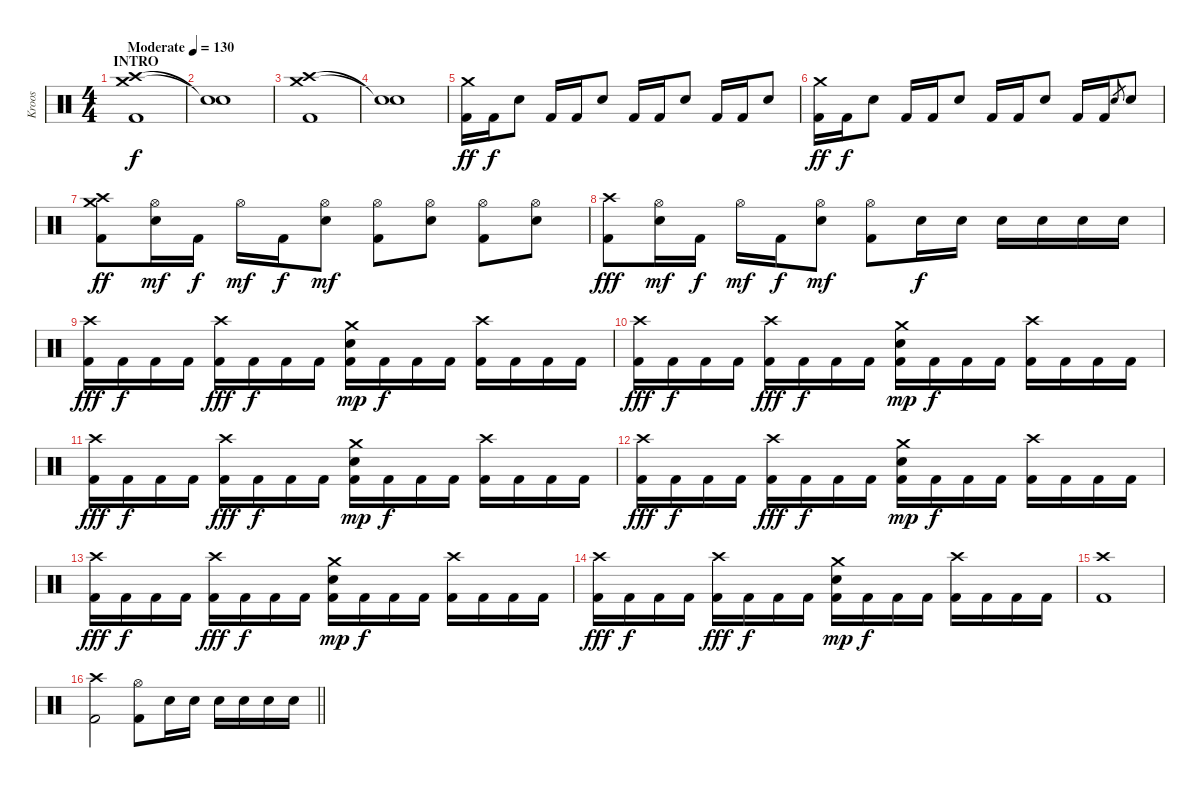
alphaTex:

\track ("Kroos" "Kroos") {instrument percussion}
\staff {score}
\articulation defaults
\ts (4 4)
\section ("" "INTRO")
\tempo (130 "Moderate")
\clef neutral
\ks c
("Crash medium (hit)" "Crash high (hit)" "Kick (hit) 2").1{dy f} |
("Snare (hit)"{t} "Snare (hit)"{t}).1 |
("Crash medium (hit)" "Crash high (hit)" "Kick (hit) 2").1 |
("Snare (hit)"{t} "Snare (hit)"{t}).1 |
("Crash medium (hit)" "Kick (hit) 2").16{dy ff} "Kick (hit) 2".16{dy f} "Electric Snare (hit)".8 "Kick (hit) 2".16 "Kick (hit) 2".16 "Electric Snare (hit)".8 "Kick (hit) 2".16 "Kick (hit) 2".16 "Electric Snare (hit)".8 "Kick (hit) 2".16 "Kick (hit) 2".16 "Electric Snare (hit)".8 |
("Crash medium (hit)" "Kick (hit) 2").16{dy ff} "Kick (hit) 2".16{dy f} "Electric Snare (hit)".8 "Kick (hit) 2".16 "Kick (hit) 2".16 "Electric Snare (hit)".8 "Kick (hit) 2".16 "Kick (hit) 2".16 "Electric Snare (hit)".8 "Kick (hit) 2".16 "Kick (hit) 2".16 "Electric Snare (hit)".8{gr} "Electric Snare (hit)".8 |
("Crash medium (hit)" "Crash high (hit)" "Kick (hit) 2").8{dy ff} ("Hi-Hat (open)" "Electric Snare (hit)").16{dy mf} "Kick (hit) 2".16{dy f} "Hi-Hat (open)".16{dy mf} "Kick (hit) 2".16{dy f} ("Hi-Hat (open)" "Electric Snare (hit)").8{dy mf} ("Hi-Hat (open)" "Kick (hit) 2").8 ("Hi-Hat (open)" "Electric Snare (hit)").8 ("Hi-Hat (open)" "Kick (hit) 2").8 ("Hi-Hat (open)" "Electric Snare (hit)").8 |
("Crash high (hit)" "Kick (hit) 2").8{dy fff} ("Hi-Hat (open)" "Electric Snare (hit)").16{dy mf} "Kick (hit) 2".16{dy f} "Hi-Hat (open)".16{dy mf} "Kick (hit) 2".16{dy f} ("Hi-Hat (open)" "Electric Snare (hit)").8{dy mf} ("Hi-Hat (open)" "Kick (hit) 2").8 "Electric Snare (hit)".16{dy f} "Electric Snare (hit)".16 "Electric Snare (hit)".16 "Electric Snare (hit)".16 "Electric Snare (hit)".16 "Electric Snare (hit)".16 |
("Crash high (hit)" "Kick (hit) 2").16{dy fff} "Kick (hit) 2".16{dy f} "Kick (hit) 2".16 "Kick (hit) 2".16 ("Crash high (hit)" "Kick (hit) 2").16{dy fff} "Kick (hit) 2".16{dy f} "Kick (hit) 2".16 "Kick (hit) 2".16 ("Crash medium (hit)" "Electric Snare (hit)" "Kick (hit) 2").16{dy mp} "Kick (hit) 2".16{dy f} "Kick (hit) 2".16 "Kick (hit) 2".16 ("Crash high (hit)" "Kick (hit) 2").16 "Kick (hit) 2".16 "Kick (hit) 2".16 "Kick (hit) 2".16 |
("Crash high (hit)" "Kick (hit) 2").16{dy fff} "Kick (hit) 2".16{dy f} "Kick (hit) 2".16 "Kick (hit) 2".16 ("Crash high (hit)" "Kick (hit) 2").16{dy fff} "Kick (hit) 2".16{dy f} "Kick (hit) 2".16 "Kick (hit) 2".16 ("Crash medium (hit)" "Electric Snare (hit)" "Kick (hit) 2").16{dy mp} "Kick (hit) 2".16{dy f} "Kick (hit) 2".16 "Kick (hit) 2".16 ("Crash high (hit)" "Kick (hit) 2").16 "Kick (hit) 2".16 "Kick (hit) 2".16 "Kick (hit) 2".16 |
("Crash high (hit)" "Kick (hit) 2").16{dy fff} "Kick (hit) 2".16{dy f} "Kick (hit) 2".16 "Kick (hit) 2".16 ("Crash high (hit)" "Kick (hit) 2").16{dy fff} "Kick (hit) 2".16{dy f} "Kick (hit) 2".16 "Kick (hit) 2".16 ("Crash medium (hit)" "Electric Snare (hit)" "Kick (hit) 2").16{dy mp} "Kick (hit) 2".16{dy f} "Kick (hit) 2".16 "Kick (hit) 2".16 ("Crash high (hit)" "Kick (hit) 2").16 "Kick (hit) 2".16 "Kick (hit) 2".16 "Kick (hit) 2".16 |
("Crash high (hit)" "Kick (hit) 2").16{dy fff} "Kick (hit) 2".16{dy f} "Kick (hit) 2".16 "Kick (hit) 2".16 ("Crash high (hit)" "Kick (hit) 2").16{dy fff} "Kick (hit) 2".16{dy f} "Kick (hit) 2".16 "Kick (hit) 2".16 ("Crash medium (hit)" "Electric Snare (hit)" "Kick (hit) 2").16{dy mp} "Kick (hit) 2".16{dy f} "Kick (hit) 2".16 "Kick (hit) 2".16 ("Crash high (hit)" "Kick (hit) 2").16 "Kick (hit) 2".16 "Kick (hit) 2".16 "Kick (hit) 2".16 |
("Crash high (hit)" "Kick (hit) 2").16{dy fff} "Kick (hit) 2".16{dy f} "Kick (hit) 2".16 "Kick (hit) 2".16 ("Crash high (hit)" "Kick (hit) 2").16{dy fff} "Kick (hit) 2".16{dy f} "Kick (hit) 2".16 "Kick (hit) 2".16 ("Crash medium (hit)" "Electric Snare (hit)" "Kick (hit) 2").16{dy mp} "Kick (hit) 2".16{dy f} "Kick (hit) 2".16 "Kick (hit) 2".16 ("Crash high (hit)" "Kick (hit) 2").16 "Kick (hit) 2".16 "Kick (hit) 2".16 "Kick (hit) 2".16 |
("Crash high (hit)" "Kick (hit) 2").16{dy fff} "Kick (hit) 2".16{dy f} "Kick (hit) 2".16 "Kick (hit) 2".16 ("Crash high (hit)" "Kick (hit) 2").16{dy fff} "Kick (hit) 2".16{dy f} "Kick (hit) 2".16 "Kick (hit) 2".16 ("Crash medium (hit)" "Electric Snare (hit)" "Kick (hit) 2").16{dy mp} "Kick (hit) 2".16{dy f} "Kick (hit) 2".16 "Kick (hit) 2".16 ("Crash high (hit)" "Kick (hit) 2").16 "Kick (hit) 2".16 "Kick (hit) 2".16 "Kick (hit) 2".16 |
("Crash high (hit)" "Kick (hit) 2").1 |
\barLineRight lightlight
("Crash high (hit)" "Kick (hit) 2").2 ("Hi-Hat (open)" "Kick (hit) 2").8 "Electric Snare (hit)".16 "Electric Snare (hit)".16 "Electric Snare (hit)".16 "Electric Snare (hit)".16 "Electric Snare (hit)".16 "Electric Snare (hit)".16
